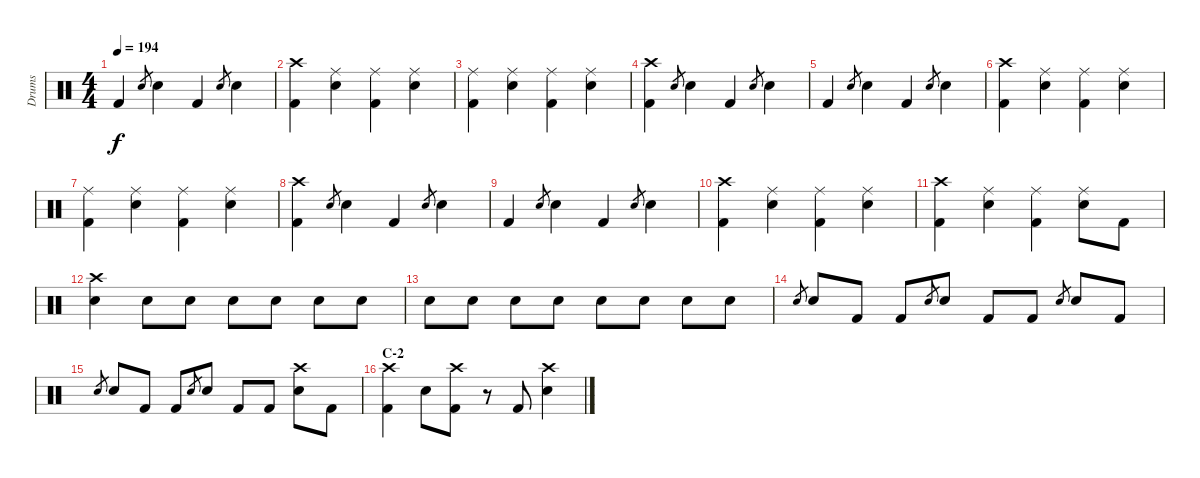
\track ("Drums" "Drums") {instrument percussion}
\staff {score}
\articulation defaults
\ts (4 4)
\tempo 194
\clef neutral
\ks c "Kick (hit) 2".4{dy f} "Electric Snare (hit)".8{gr} "Electric Snare (hit)".4 "Kick (hit) 2".4 "Electric Snare (hit)".8{gr} "Electric Snare (hit)".4
|
("Crash high (hit)" "Kick (hit) 2").4 ("Ride (middle)" "Electric Snare (hit)").4 ("Ride (middle)" "Kick (hit) 2").4 ("Ride (middle)" "Electric Snare (hit)").4 |
("Ride (middle)" "Kick (hit) 2").4 ("Ride (middle)" "Electric Snare (hit)").4 ("Ride (middle)" "Kick (hit) 2").4 ("Ride (middle)" "Electric Snare (hit)").4 |
("Crash high (hit)" "Kick (hit) 2").4 "Electric Snare (hit)".8{gr} "Electric Snare (hit)".4 "Kick (hit) 2".4 "Electric Snare (hit)".8{gr} "Electric Snare (hit)".4 |
"Kick (hit) 2".4 "Electric Snare (hit)".8{gr} "Electric Snare (hit)".4 "Kick (hit) 2".4 "Electric Snare (hit)".8{gr} "Electric Snare (hit)".4 |
("Crash high (hit)" "Kick (hit) 2").4 ("Ride (middle)" "Electric Snare (hit)").4 ("Ride (middle)" "Kick (hit) 2").4 ("Ride (middle)" "Electric Snare (hit)").4 |
("Ride (middle)" "Kick (hit) 2").4 ("Ride (middle)" "Electric Snare (hit)").4 ("Ride (middle)" "Kick (hit) 2").4 ("Ride (middle)" "Electric Snare (hit)").4 |
("Crash high (hit)" "Kick (hit) 2").4 "Electric Snare (hit)".8{gr} "Electric Snare (hit)".4 "Kick (hit) 2".4 "Electric Snare (hit)".8{gr} "Electric Snare (hit)".4 |
"Kick (hit) 2".4 "Electric Snare (hit)".8{gr} "Electric Snare (hit)".4 "Kick (hit) 2".4 "Electric Snare (hit)".8{gr} "Electric Snare (hit)".4 |
("Crash high (hit)" "Kick (hit) 2").4 ("Ride (middle)" "Electric Snare (hit)").4 ("Ride (middle)" "Kick (hit) 2").4 ("Ride (middle)" "Electric Snare (hit)").4 |
("Crash high (hit)" "Kick (hit) 2").4 ("Ride (middle)" "Electric Snare (hit)").4 ("Ride (middle)" "Kick (hit) 2").4 ("Ride (middle)" "Electric Snare (hit)").8 "Kick (hit) 2".8 |
("Crash high (hit)" "Electric Snare (hit)").4 "Electric Snare (hit)".8 "Electric Snare (hit)".8 "Electric Snare (hit)".8 "Electric Snare (hit)".8 "Electric Snare (hit)".8 "Electric Snare (hit)".8 |
"Electric Snare (hit)".8 "Electric Snare (hit)".8 "Electric Snare (hit)".8 "Electric Snare (hit)".8 "Electric Snare (hit)".8 "Electric Snare (hit)".8 "Electric Snare (hit)".8 "Electric Snare (hit)".8 |
"Electric Snare (hit)".8{gr} "Electric Snare (hit)".8 "Kick (hit) 2".8 "Kick (hit) 2".8 "Electric Snare (hit)".8{gr} "Electric Snare (hit)".8 "Kick (hit) 2".8 "Kick (hit) 2".8 "Electric Snare (hit)".8{gr} "Electric Snare (hit)".8 "Kick (hit) 2".8 |
"Electric Snare (hit)".8{gr} "Electric Snare (hit)".8 "Kick (hit) 2".8 "Kick (hit) 2".8 "Electric Snare (hit)".8{gr} "Electric Snare (hit)".8 "Kick (hit) 2".8 "Kick (hit) 2".8 ("Crash high (hit)" "Electric Snare (hit)").8 "Kick (hit) 2".8 |
\section ("" "C-2")
("Crash high (hit)" "Kick (hit) 2").4 "Electric Snare (hit)".8 ("Crash high (hit)" "Kick (hit) 2").8 r.8 "Kick (hit) 2".8 ("Crash high (hit)" "Electric Snare (hit)").4
